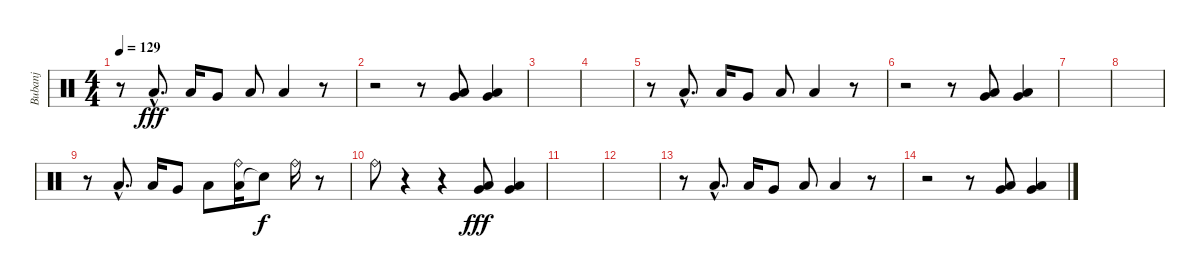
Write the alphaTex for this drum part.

\track ("Bubanj" "Bubanj") {instrument percussion}
\staff {score}
\articulation defaults
\ts (4 4)
\tempo 129
\clef neutral
\ks c
r.8{dy fff} "Low Floor Tom (hit)"{hac}.8{d} "Low Floor Tom (hit)".16 "Very Low Tom (hit)".8 "Low Floor Tom (hit)".8 "Low Floor Tom (hit)".4 r.8 |
r.2 r.8 ("Low Floor Tom (hit)" "Very Low Tom (hit)").8 ("Low Floor Tom (hit)" "Very Low Tom (hit)").4 |
|
|
r.8 "Low Floor Tom (hit)"{hac}.8{d} "Low Floor Tom (hit)".16 "Very Low Tom (hit)".8 "Low Floor Tom (hit)".8 "Low Floor Tom (hit)".4 r.8 |
r.2 r.8 ("Low Floor Tom (hit)" "Very Low Tom (hit)").8 ("Low Floor Tom (hit)" "Very Low Tom (hit)").4 |
|
|
r.8 "Low Floor Tom (hit)"{hac}.8{d} "Low Floor Tom (hit)".16 "Very Low Tom (hit)".8 "Low Floor Tom (hit)".8 ("Low Floor Tom (hit)" "Ride (bell)").16 "Snare (hit)"{t}.8{dy f} "Ride (bell)".16 r.8 |
"Ride (bell)".8 r.4 r.4 ("Low Floor Tom (hit)" "Very Low Tom (hit)").8{dy fff} ("Low Floor Tom (hit)" "Very Low Tom (hit)").4 |
|
|
r.8 "Low Floor Tom (hit)"{hac}.8{d} "Low Floor Tom (hit)".16 "Very Low Tom (hit)".8 "Low Floor Tom (hit)".8 "Low Floor Tom (hit)".4 r.8 |
r.2 r.8 ("Low Floor Tom (hit)" "Very Low Tom (hit)").8 ("Low Floor Tom (hit)" "Very Low Tom (hit)").4
